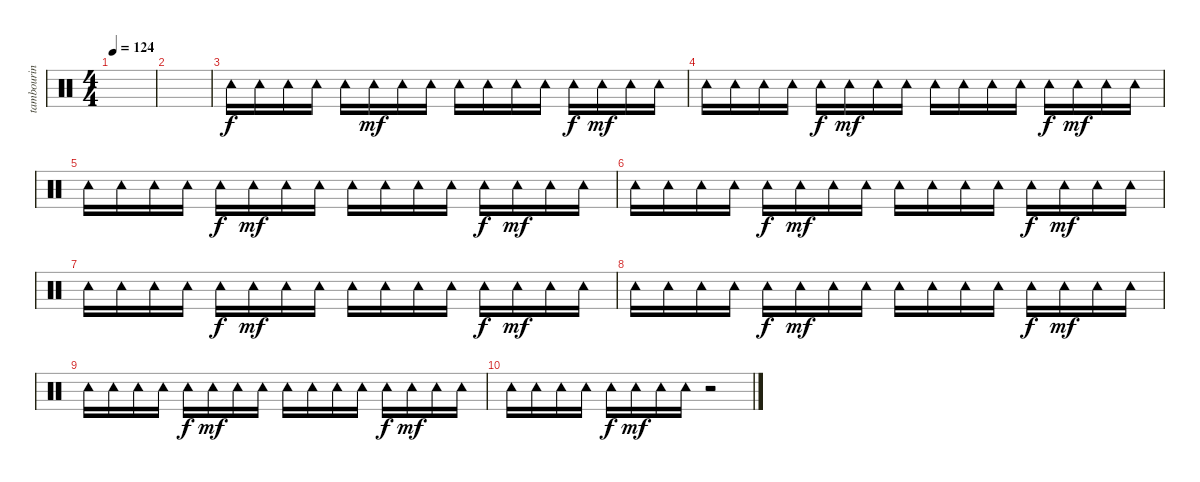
\track ("tambourin" "tambourin") {instrument percussion}
\staff {score}
\articulation defaults
\ts (4 4)
\tempo 124
\clef neutral
\ks c
|
|
"Tambourine (hit)".16 "Tambourine (hit)".16 "Tambourine (hit)".16 "Tambourine (hit)".16 "Tambourine (hit)".16{dy f} "Tambourine (hit)".16{dy mf} "Tambourine (hit)".16 "Tambourine (hit)".16 "Tambourine (hit)".16 "Tambourine (hit)".16 "Tambourine (hit)".16 "Tambourine (hit)".16 "Tambourine (hit)".16{dy f} "Tambourine (hit)".16{dy mf} "Tambourine (hit)".16 "Tambourine (hit)".16 |
"Tambourine (hit)".16 "Tambourine (hit)".16 "Tambourine (hit)".16 "Tambourine (hit)".16 "Tambourine (hit)".16{dy f} "Tambourine (hit)".16{dy mf} "Tambourine (hit)".16 "Tambourine (hit)".16 "Tambourine (hit)".16 "Tambourine (hit)".16 "Tambourine (hit)".16 "Tambourine (hit)".16 "Tambourine (hit)".16{dy f} "Tambourine (hit)".16{dy mf} "Tambourine (hit)".16 "Tambourine (hit)".16 |
"Tambourine (hit)".16 "Tambourine (hit)".16 "Tambourine (hit)".16 "Tambourine (hit)".16 "Tambourine (hit)".16{dy f} "Tambourine (hit)".16{dy mf} "Tambourine (hit)".16 "Tambourine (hit)".16 "Tambourine (hit)".16 "Tambourine (hit)".16 "Tambourine (hit)".16 "Tambourine (hit)".16 "Tambourine (hit)".16{dy f} "Tambourine (hit)".16{dy mf} "Tambourine (hit)".16 "Tambourine (hit)".16 |
"Tambourine (hit)".16 "Tambourine (hit)".16 "Tambourine (hit)".16 "Tambourine (hit)".16 "Tambourine (hit)".16{dy f} "Tambourine (hit)".16{dy mf} "Tambourine (hit)".16 "Tambourine (hit)".16 "Tambourine (hit)".16 "Tambourine (hit)".16 "Tambourine (hit)".16 "Tambourine (hit)".16 "Tambourine (hit)".16{dy f} "Tambourine (hit)".16{dy mf} "Tambourine (hit)".16 "Tambourine (hit)".16 |
"Tambourine (hit)".16 "Tambourine (hit)".16 "Tambourine (hit)".16 "Tambourine (hit)".16 "Tambourine (hit)".16{dy f} "Tambourine (hit)".16{dy mf} "Tambourine (hit)".16 "Tambourine (hit)".16 "Tambourine (hit)".16 "Tambourine (hit)".16 "Tambourine (hit)".16 "Tambourine (hit)".16 "Tambourine (hit)".16{dy f} "Tambourine (hit)".16{dy mf} "Tambourine (hit)".16 "Tambourine (hit)".16 |
"Tambourine (hit)".16 "Tambourine (hit)".16 "Tambourine (hit)".16 "Tambourine (hit)".16 "Tambourine (hit)".16{dy f} "Tambourine (hit)".16{dy mf} "Tambourine (hit)".16 "Tambourine (hit)".16 "Tambourine (hit)".16 "Tambourine (hit)".16 "Tambourine (hit)".16 "Tambourine (hit)".16 "Tambourine (hit)".16{dy f} "Tambourine (hit)".16{dy mf} "Tambourine (hit)".16 "Tambourine (hit)".16 |
"Tambourine (hit)".16 "Tambourine (hit)".16 "Tambourine (hit)".16 "Tambourine (hit)".16 "Tambourine (hit)".16{dy f} "Tambourine (hit)".16{dy mf} "Tambourine (hit)".16 "Tambourine (hit)".16 "Tambourine (hit)".16 "Tambourine (hit)".16 "Tambourine (hit)".16 "Tambourine (hit)".16 "Tambourine (hit)".16{dy f} "Tambourine (hit)".16{dy mf} "Tambourine (hit)".16 "Tambourine (hit)".16 |
"Tambourine (hit)".16 "Tambourine (hit)".16 "Tambourine (hit)".16 "Tambourine (hit)".16 "Tambourine (hit)".16{dy f} "Tambourine (hit)".16{dy mf} "Tambourine (hit)".16 "Tambourine (hit)".16 r.2
